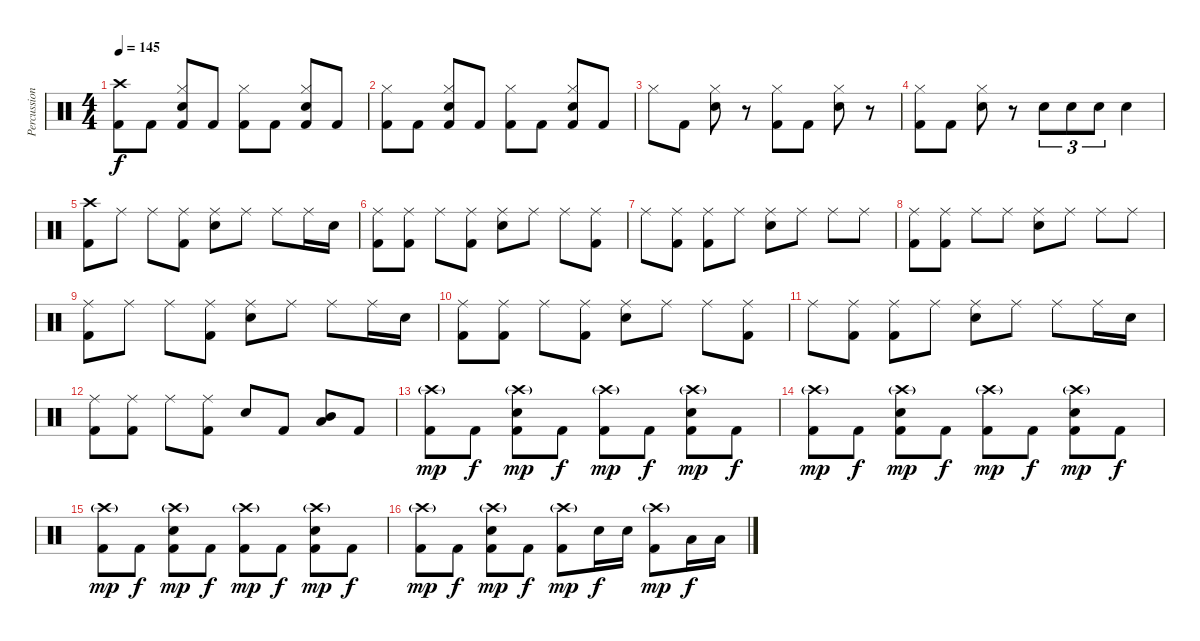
\track ("Percussion" "Percussion") {instrument percussion}
\staff {score}
\articulation defaults
\ts (4 4)
\tempo 145
\clef neutral
\ks c
("Crash high (hit)" "Kick (hit) 2").8{dy f} "Kick (hit) 2".8 ("Hi-Hat (closed)" "Snare (hit) 2" "Kick (hit) 2").8 "Kick (hit) 2".8 ("Hi-Hat (closed)" "Kick (hit) 2").8 "Kick (hit) 2".8 ("Hi-Hat (closed)" "Snare (hit) 2" "Kick (hit) 2").8 "Kick (hit) 2".8 |
("Hi-Hat (closed)" "Kick (hit) 2").8 "Kick (hit) 2".8 ("Hi-Hat (closed)" "Snare (hit) 2" "Kick (hit) 2").8 "Kick (hit) 2".8 ("Hi-Hat (closed)" "Kick (hit) 2").8 "Kick (hit) 2".8 ("Hi-Hat (closed)" "Snare (hit) 2" "Kick (hit) 2").8 "Kick (hit) 2".8 |
"Hi-Hat (closed)".8 "Kick (hit) 2".8 ("Hi-Hat (closed)" "Snare (hit) 2").8 r.8 ("Hi-Hat (closed)" "Kick (hit) 2").8 "Kick (hit) 2".8 ("Hi-Hat (closed)" "Snare (hit) 2").8 r.8 |
("Hi-Hat (closed)" "Kick (hit) 2").8 "Kick (hit) 2".8 ("Hi-Hat (closed)" "Snare (hit) 2").8 r.8 "Snare (hit) 2".8{tu (3 2)} "Snare (hit) 2".8{tu (3 2)} "Snare (hit) 2".8{tu (3 2)} "Snare (hit) 2".4 |
("Crash high (hit)" "Kick (hit) 2").8 "Ride (middle)".8 "Ride (middle)".8 ("Ride (middle)" "Kick (hit) 2").8 ("Ride (middle)" "Snare (hit) 2").8 "Ride (middle)".8 "Ride (middle)".8 "Ride (middle)".16 "Snare (hit) 2".16 |
("Ride (middle)" "Kick (hit) 2").8 ("Ride (middle)" "Kick (hit) 2").8 "Ride (middle)".8 ("Ride (middle)" "Kick (hit) 2").8 ("Ride (middle)" "Snare (hit) 2").8 "Ride (middle)".8 "Ride (middle)".8 ("Ride (middle)" "Kick (hit) 2").8 |
"Ride (middle)".8 ("Ride (middle)" "Kick (hit) 2").8 ("Ride (middle)" "Kick (hit) 2").8 "Ride (middle)".8 ("Ride (middle)" "Snare (hit) 2").8 "Ride (middle)".8 "Ride (middle)".8 "Ride (middle)".8 |
("Ride (middle)" "Kick (hit) 2").8 ("Ride (middle)" "Kick (hit) 2").8 "Ride (middle)".8 "Ride (middle)".8 ("Ride (middle)" "Snare (hit) 2").8 "Ride (middle)".8 "Ride (middle)".8 "Ride (middle)".8 |
("Ride (middle)" "Kick (hit) 2").8 "Ride (middle)".8 "Ride (middle)".8 ("Ride (middle)" "Kick (hit) 2").8 ("Ride (middle)" "Snare (hit) 2").8 "Ride (middle)".8 "Ride (middle)".8 "Ride (middle)".16 "Snare (hit) 2".16 |
("Ride (middle)" "Kick (hit) 2").8 ("Ride (middle)" "Kick (hit) 2").8 "Ride (middle)".8 ("Ride (middle)" "Kick (hit) 2").8 ("Ride (middle)" "Snare (hit) 2").8 "Ride (middle)".8 "Ride (middle)".8 ("Ride (middle)" "Kick (hit) 2").8 |
"Ride (middle)".8 ("Ride (middle)" "Kick (hit) 2").8 ("Ride (middle)" "Kick (hit) 2").8 "Ride (middle)".8 ("Ride (middle)" "Snare (hit) 2").8 "Ride (middle)".8 "Ride (middle)".8 "Ride (middle)".16 "Snare (hit) 2".16 |
("Ride (middle)" "Kick (hit) 2").8 ("Ride (middle)" "Kick (hit) 2").8 "Ride (middle)".8 ("Ride (middle)" "Kick (hit) 2").8 "Snare (hit) 2".8 "Kick (hit) 2".8 ("Mid Tom (hit)" "Low Tom (hit)").8 "Kick (hit) 2".8 |
("Crash high (hit)"{g} "Kick (hit) 2").8{dy mp} "Kick (hit) 2".8{dy f} ("Crash high (hit)"{g} "Electric Snare (hit)" "Kick (hit) 2").8{dy mp} "Kick (hit) 2".8{dy f} ("Crash high (hit)"{g} "Kick (hit) 2").8{dy mp} "Kick (hit) 2".8{dy f} ("Crash high (hit)"{g} "Electric Snare (hit)" "Kick (hit) 2").8{dy mp} "Kick (hit) 2".8{dy f} |
("Crash high (hit)"{g} "Kick (hit) 2").8{dy mp} "Kick (hit) 2".8{dy f} ("Crash high (hit)"{g} "Electric Snare (hit)" "Kick (hit) 2").8{dy mp} "Kick (hit) 2".8{dy f} ("Crash high (hit)"{g} "Kick (hit) 2").8{dy mp} "Kick (hit) 2".8{dy f} ("Crash high (hit)"{g} "Electric Snare (hit)" "Kick (hit) 2").8{dy mp} "Kick (hit) 2".8{dy f} |
("Crash high (hit)"{g} "Kick (hit) 2").8{dy mp} "Kick (hit) 2".8{dy f} ("Crash high (hit)"{g} "Electric Snare (hit)" "Kick (hit) 2").8{dy mp} "Kick (hit) 2".8{dy f} ("Crash high (hit)"{g} "Kick (hit) 2").8{dy mp} "Kick (hit) 2".8{dy f} ("Crash high (hit)"{g} "Electric Snare (hit)" "Kick (hit) 2").8{dy mp} "Kick (hit) 2".8{dy f} |
("Crash high (hit)"{g} "Kick (hit) 2").8{dy mp} "Kick (hit) 2".8{dy f} ("Crash high (hit)"{g} "Electric Snare (hit)" "Kick (hit) 2").8{dy mp} "Kick (hit) 2".8{dy f} ("Crash high (hit)"{g} "Kick (hit) 2").8{dy mp} "Snare (hit) 2".16{dy f} "Snare (hit) 2".16 ("Crash high (hit)"{g} "Kick (hit) 2").8{dy mp} "Low Tom (hit)".16{dy f} "Low Tom (hit)".16
